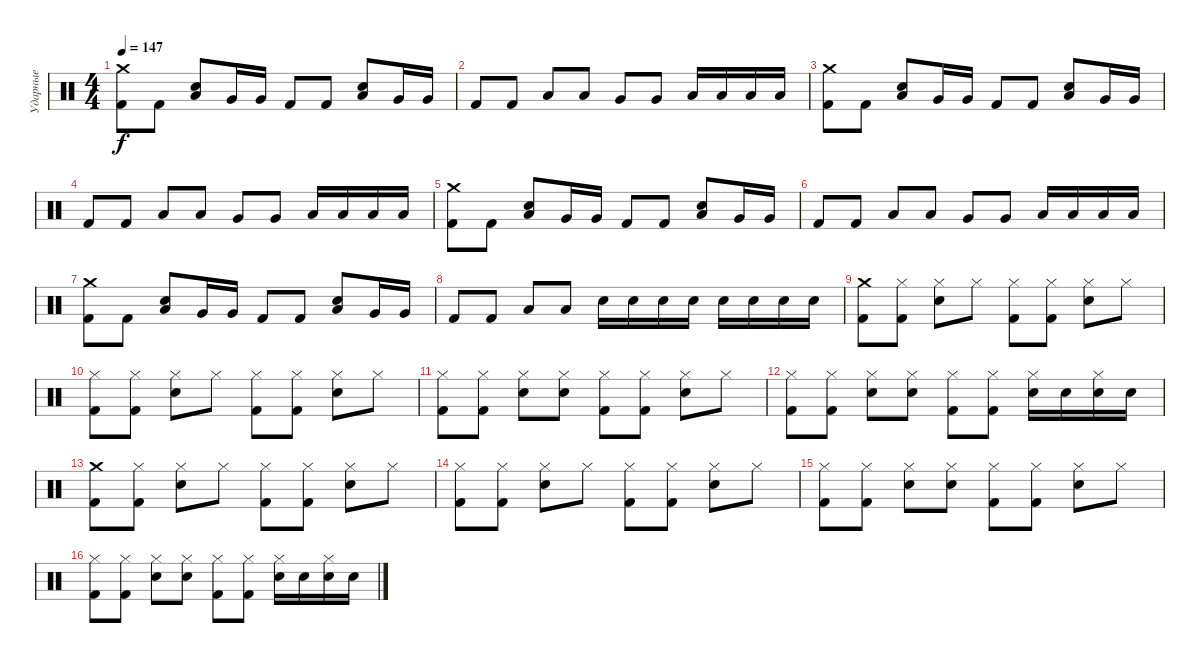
\track ("Ударные" "Ударные") {instrument percussion}
\staff {score}
\articulation defaults
\ts (4 4)
\tempo 147
\clef neutral
\ks c
("Crash medium (hit)" "Kick (hit) 2").8{dy f} "Kick (hit) 2".8 ("Electric Snare (hit)" "Low Tom (hit)").8 "Very Low Tom (hit)".16 "Very Low Tom (hit)".16 "Kick (hit) 2".8 "Kick (hit) 2".8 ("Electric Snare (hit)" "Low Tom (hit)").8 "Very Low Tom (hit)".16 "Very Low Tom (hit)".16 |
"Kick (hit) 2".8 "Kick (hit) 2".8 "Low Tom (hit)".8 "Low Tom (hit)".8 "Very Low Tom (hit)".8 "Very Low Tom (hit)".8 "Low Floor Tom (hit)".16 "Low Floor Tom (hit)".16 "Low Floor Tom (hit)".16 "Low Floor Tom (hit)".16 |
("Crash medium (hit)" "Kick (hit) 2").8 "Kick (hit) 2".8 ("Electric Snare (hit)" "Low Tom (hit)").8 "Very Low Tom (hit)".16 "Very Low Tom (hit)".16 "Kick (hit) 2".8 "Kick (hit) 2".8 ("Electric Snare (hit)" "Low Tom (hit)").8 "Very Low Tom (hit)".16 "Very Low Tom (hit)".16 |
"Kick (hit) 2".8 "Kick (hit) 2".8 "Low Tom (hit)".8 "Low Tom (hit)".8 "Very Low Tom (hit)".8 "Very Low Tom (hit)".8 "Low Floor Tom (hit)".16 "Low Floor Tom (hit)".16 "Low Floor Tom (hit)".16 "Low Floor Tom (hit)".16 |
("Crash medium (hit)" "Kick (hit) 2").8 "Kick (hit) 2".8 ("Electric Snare (hit)" "Low Tom (hit)").8 "Very Low Tom (hit)".16 "Very Low Tom (hit)".16 "Kick (hit) 2".8 "Kick (hit) 2".8 ("Electric Snare (hit)" "Low Tom (hit)").8 "Very Low Tom (hit)".16 "Very Low Tom (hit)".16 |
"Kick (hit) 2".8 "Kick (hit) 2".8 "Low Tom (hit)".8 "Low Tom (hit)".8 "Very Low Tom (hit)".8 "Very Low Tom (hit)".8 "Low Floor Tom (hit)".16 "Low Floor Tom (hit)".16 "Low Floor Tom (hit)".16 "Low Floor Tom (hit)".16 |
("Crash medium (hit)" "Kick (hit) 2").8 "Kick (hit) 2".8 ("Electric Snare (hit)" "Low Tom (hit)").8 "Very Low Tom (hit)".16 "Very Low Tom (hit)".16 "Kick (hit) 2".8 "Kick (hit) 2".8 ("Electric Snare (hit)" "Low Tom (hit)").8 "Very Low Tom (hit)".16 "Very Low Tom (hit)".16 |
"Kick (hit) 2".8 "Kick (hit) 2".8 "Low Tom (hit)".8 "Low Tom (hit)".8 "Electric Snare (hit)".16 "Electric Snare (hit)".16 "Electric Snare (hit)".16 "Electric Snare (hit)".16 "Electric Snare (hit)".16 "Electric Snare (hit)".16 "Electric Snare (hit)".16 "Electric Snare (hit)".16 |
("Crash medium (hit)" "Kick (hit) 2").8 ("Hi-Hat (closed)" "Kick (hit) 2").8 ("Hi-Hat (closed)" "Electric Snare (hit)").8 "Hi-Hat (closed)".8 ("Hi-Hat (closed)" "Kick (hit) 2").8 ("Hi-Hat (closed)" "Kick (hit) 2").8 ("Hi-Hat (closed)" "Electric Snare (hit)").8 "Hi-Hat (closed)".8 |
("Hi-Hat (closed)" "Kick (hit) 2").8 ("Hi-Hat (closed)" "Kick (hit) 2").8 ("Hi-Hat (closed)" "Electric Snare (hit)").8 "Hi-Hat (closed)".8 ("Hi-Hat (closed)" "Kick (hit) 2").8 ("Hi-Hat (closed)" "Kick (hit) 2").8 ("Hi-Hat (closed)" "Electric Snare (hit)").8 "Hi-Hat (closed)".8 |
("Hi-Hat (closed)" "Kick (hit) 2").8 ("Hi-Hat (closed)" "Kick (hit) 2").8 ("Hi-Hat (closed)" "Electric Snare (hit)").8 ("Hi-Hat (closed)" "Electric Snare (hit)").8 ("Hi-Hat (closed)" "Kick (hit) 2").8 ("Hi-Hat (closed)" "Kick (hit) 2").8 ("Hi-Hat (closed)" "Electric Snare (hit)").8 "Hi-Hat (closed)".8 |
("Hi-Hat (closed)" "Kick (hit) 2").8 ("Hi-Hat (closed)" "Kick (hit) 2").8 ("Hi-Hat (closed)" "Electric Snare (hit)").8 ("Hi-Hat (closed)" "Electric Snare (hit)").8 ("Hi-Hat (closed)" "Kick (hit) 2").8 ("Hi-Hat (closed)" "Kick (hit) 2").8 ("Hi-Hat (closed)" "Electric Snare (hit)").16 "Electric Snare (hit)".16 ("Hi-Hat (closed)" "Electric Snare (hit)").16 "Electric Snare (hit)".16 |
("Crash medium (hit)" "Kick (hit) 2").8 ("Hi-Hat (closed)" "Kick (hit) 2").8 ("Hi-Hat (closed)" "Electric Snare (hit)").8 "Hi-Hat (closed)".8 ("Hi-Hat (closed)" "Kick (hit) 2").8 ("Hi-Hat (closed)" "Kick (hit) 2").8 ("Hi-Hat (closed)" "Electric Snare (hit)").8 "Hi-Hat (closed)".8 |
("Hi-Hat (closed)" "Kick (hit) 2").8 ("Hi-Hat (closed)" "Kick (hit) 2").8 ("Hi-Hat (closed)" "Electric Snare (hit)").8 "Hi-Hat (closed)".8 ("Hi-Hat (closed)" "Kick (hit) 2").8 ("Hi-Hat (closed)" "Kick (hit) 2").8 ("Hi-Hat (closed)" "Electric Snare (hit)").8 "Hi-Hat (closed)".8 |
("Hi-Hat (closed)" "Kick (hit) 2").8 ("Hi-Hat (closed)" "Kick (hit) 2").8 ("Hi-Hat (closed)" "Electric Snare (hit)").8 ("Hi-Hat (closed)" "Electric Snare (hit)").8 ("Hi-Hat (closed)" "Kick (hit) 2").8 ("Hi-Hat (closed)" "Kick (hit) 2").8 ("Hi-Hat (closed)" "Electric Snare (hit)").8 "Hi-Hat (closed)".8 |
("Hi-Hat (closed)" "Kick (hit) 2").8 ("Hi-Hat (closed)" "Kick (hit) 2").8 ("Hi-Hat (closed)" "Electric Snare (hit)").8 ("Hi-Hat (closed)" "Electric Snare (hit)").8 ("Hi-Hat (closed)" "Kick (hit) 2").8 ("Hi-Hat (closed)" "Kick (hit) 2").8 ("Hi-Hat (closed)" "Electric Snare (hit)").16 "Electric Snare (hit)".16 ("Hi-Hat (closed)" "Electric Snare (hit)").16 "Electric Snare (hit)".16
